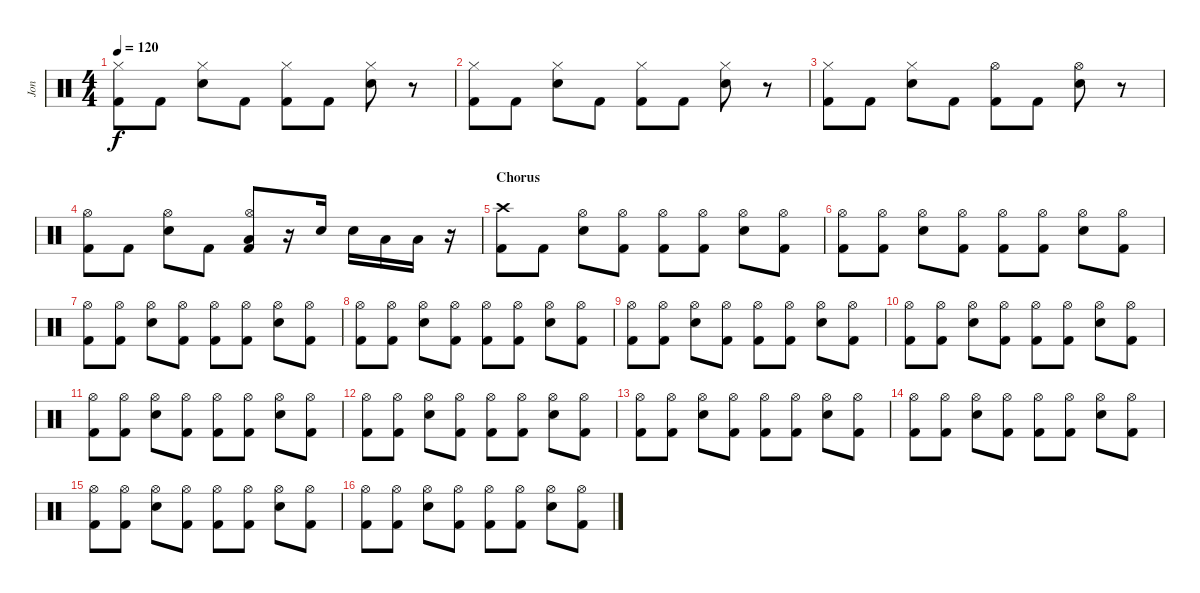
\track ("Jon" "Jon") {instrument percussion}
\staff {score}
\articulation defaults
\ts (4 4)
\tempo 120
\clef neutral
\ks c
("Hi-Hat (closed)" "Kick (hit) 2").8{dy f} "Kick (hit) 2".8 ("Hi-Hat (closed)" "Electric Snare (hit)").8 "Kick (hit) 2".8 ("Hi-Hat (closed)" "Kick (hit) 2").8 "Kick (hit) 2".8 ("Hi-Hat (closed)" "Electric Snare (hit)").8 r.8 |
("Hi-Hat (closed)" "Kick (hit) 2").8 "Kick (hit) 2".8 ("Hi-Hat (closed)" "Electric Snare (hit)").8 "Kick (hit) 2".8 ("Hi-Hat (closed)" "Kick (hit) 2").8 "Kick (hit) 2".8 ("Hi-Hat (closed)" "Electric Snare (hit)").8 r.8 |
("Hi-Hat (closed)" "Kick (hit) 2").8 "Kick (hit) 2".8 ("Hi-Hat (closed)" "Electric Snare (hit)").8 "Kick (hit) 2".8 ("Hi-Hat (open)" "Kick (hit) 2").8 "Kick (hit) 2".8 ("Hi-Hat (open)" "Electric Snare (hit)").8 r.8 |
("Hi-Hat (open)" "Kick (hit) 2").8 "Kick (hit) 2".8 ("Hi-Hat (open)" "Electric Snare (hit)").8 "Kick (hit) 2".8 ("Hi-Hat (open)" "Low Floor Tom (hit)" "Kick (hit) 2").8 r.16 "Electric Snare (hit)".16 "Electric Snare (hit)".16 "Low Tom (hit)".16 "Low Floor Tom (hit)".16 r.16 |
\section ("" "Chorus")
("Crash high (hit)" "Kick (hit) 2").8 "Kick (hit) 2".8 ("Hi-Hat (open)" "Electric Snare (hit)").8 ("Hi-Hat (open)" "Kick (hit) 2").8 ("Hi-Hat (open)" "Kick (hit) 2").8 ("Hi-Hat (open)" "Kick (hit) 2").8 ("Hi-Hat (open)" "Electric Snare (hit)").8 ("Hi-Hat (open)" "Kick (hit) 2").8 |
("Hi-Hat (open)" "Kick (hit) 2").8 ("Hi-Hat (open)" "Kick (hit) 2").8 ("Hi-Hat (open)" "Electric Snare (hit)").8 ("Hi-Hat (open)" "Kick (hit) 2").8 ("Hi-Hat (open)" "Kick (hit) 2").8 ("Hi-Hat (open)" "Kick (hit) 2").8 ("Hi-Hat (open)" "Electric Snare (hit)").8 ("Hi-Hat (open)" "Kick (hit) 2").8 |
("Hi-Hat (open)" "Kick (hit) 2").8 ("Hi-Hat (open)" "Kick (hit) 2").8 ("Hi-Hat (open)" "Electric Snare (hit)").8 ("Hi-Hat (open)" "Kick (hit) 2").8 ("Hi-Hat (open)" "Kick (hit) 2").8 ("Hi-Hat (open)" "Kick (hit) 2").8 ("Hi-Hat (open)" "Electric Snare (hit)").8 ("Hi-Hat (open)" "Kick (hit) 2").8 |
("Hi-Hat (open)" "Kick (hit) 2").8 ("Hi-Hat (open)" "Kick (hit) 2").8 ("Hi-Hat (open)" "Electric Snare (hit)").8 ("Hi-Hat (open)" "Kick (hit) 2").8 ("Hi-Hat (open)" "Kick (hit) 2").8 ("Hi-Hat (open)" "Kick (hit) 2").8 ("Hi-Hat (open)" "Electric Snare (hit)").8 ("Hi-Hat (open)" "Kick (hit) 2").8 |
("Hi-Hat (open)" "Kick (hit) 2").8 ("Hi-Hat (open)" "Kick (hit) 2").8 ("Hi-Hat (open)" "Electric Snare (hit)").8 ("Hi-Hat (open)" "Kick (hit) 2").8 ("Hi-Hat (open)" "Kick (hit) 2").8 ("Hi-Hat (open)" "Kick (hit) 2").8 ("Hi-Hat (open)" "Electric Snare (hit)").8 ("Hi-Hat (open)" "Kick (hit) 2").8 |
("Hi-Hat (open)" "Kick (hit) 2").8 ("Hi-Hat (open)" "Kick (hit) 2").8 ("Hi-Hat (open)" "Electric Snare (hit)").8 ("Hi-Hat (open)" "Kick (hit) 2").8 ("Hi-Hat (open)" "Kick (hit) 2").8 ("Hi-Hat (open)" "Kick (hit) 2").8 ("Hi-Hat (open)" "Electric Snare (hit)").8 ("Hi-Hat (open)" "Kick (hit) 2").8 |
("Hi-Hat (open)" "Kick (hit) 2").8 ("Hi-Hat (open)" "Kick (hit) 2").8 ("Hi-Hat (open)" "Electric Snare (hit)").8 ("Hi-Hat (open)" "Kick (hit) 2").8 ("Hi-Hat (open)" "Kick (hit) 2").8 ("Hi-Hat (open)" "Kick (hit) 2").8 ("Hi-Hat (open)" "Electric Snare (hit)").8 ("Hi-Hat (open)" "Kick (hit) 2").8 |
("Hi-Hat (open)" "Kick (hit) 2").8 ("Hi-Hat (open)" "Kick (hit) 2").8 ("Hi-Hat (open)" "Electric Snare (hit)").8 ("Hi-Hat (open)" "Kick (hit) 2").8 ("Hi-Hat (open)" "Kick (hit) 2").8 ("Hi-Hat (open)" "Kick (hit) 2").8 ("Hi-Hat (open)" "Electric Snare (hit)").8 ("Hi-Hat (open)" "Kick (hit) 2").8 |
("Hi-Hat (open)" "Kick (hit) 2").8 ("Hi-Hat (open)" "Kick (hit) 2").8 ("Hi-Hat (open)" "Electric Snare (hit)").8 ("Hi-Hat (open)" "Kick (hit) 2").8 ("Hi-Hat (open)" "Kick (hit) 2").8 ("Hi-Hat (open)" "Kick (hit) 2").8 ("Hi-Hat (open)" "Electric Snare (hit)").8 ("Hi-Hat (open)" "Kick (hit) 2").8 |
("Hi-Hat (open)" "Kick (hit) 2").8 ("Hi-Hat (open)" "Kick (hit) 2").8 ("Hi-Hat (open)" "Electric Snare (hit)").8 ("Hi-Hat (open)" "Kick (hit) 2").8 ("Hi-Hat (open)" "Kick (hit) 2").8 ("Hi-Hat (open)" "Kick (hit) 2").8 ("Hi-Hat (open)" "Electric Snare (hit)").8 ("Hi-Hat (open)" "Kick (hit) 2").8 |
("Hi-Hat (open)" "Kick (hit) 2").8 ("Hi-Hat (open)" "Kick (hit) 2").8 ("Hi-Hat (open)" "Electric Snare (hit)").8 ("Hi-Hat (open)" "Kick (hit) 2").8 ("Hi-Hat (open)" "Kick (hit) 2").8 ("Hi-Hat (open)" "Kick (hit) 2").8 ("Hi-Hat (open)" "Electric Snare (hit)").8 ("Hi-Hat (open)" "Kick (hit) 2").8 |
("Hi-Hat (open)" "Kick (hit) 2").8 ("Hi-Hat (open)" "Kick (hit) 2").8 ("Hi-Hat (open)" "Electric Snare (hit)").8 ("Hi-Hat (open)" "Kick (hit) 2").8 ("Hi-Hat (open)" "Kick (hit) 2").8 ("Hi-Hat (open)" "Kick (hit) 2").8 ("Hi-Hat (open)" "Electric Snare (hit)").8 ("Hi-Hat (open)" "Kick (hit) 2").8
